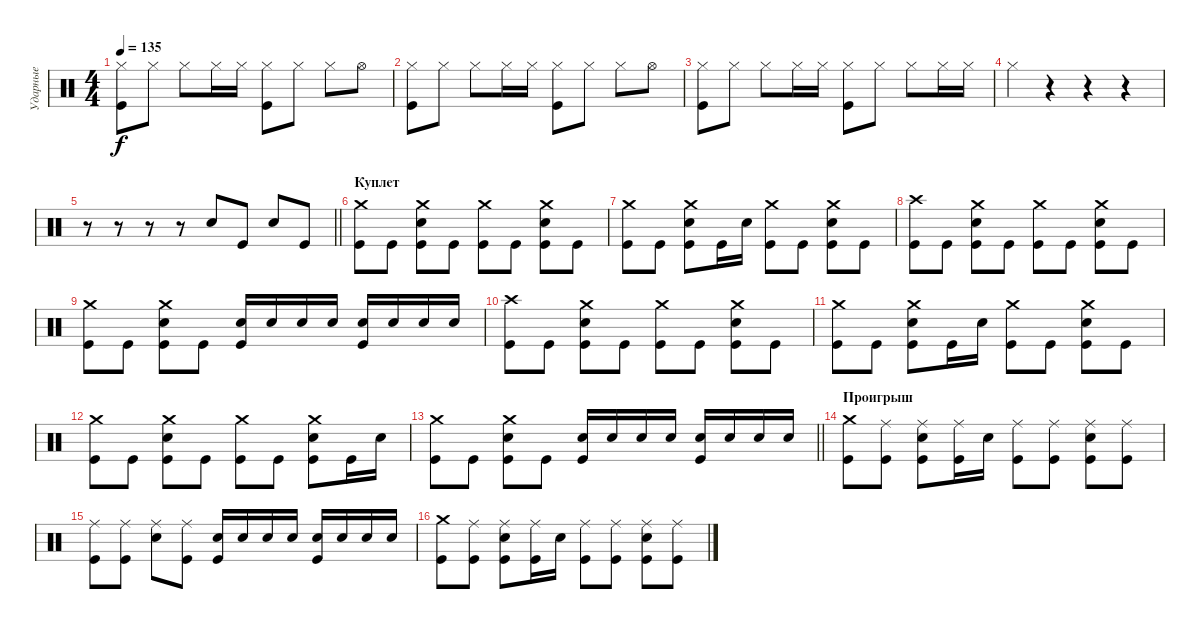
\track ("Ударные" "Ударные") {instrument percussion}
\staff {score}
\articulation defaults
\ts (4 4)
\tempo 135
\clef neutral
\ks c
("Hi-Hat (closed)" "Kick (hit)").8{dy f} "Hi-Hat (closed)".8 "Hi-Hat (closed)".8 "Hi-Hat (closed)".16 "Hi-Hat (closed)".16 ("Hi-Hat (closed)" "Kick (hit)").8 "Hi-Hat (closed)".8 "Hi-Hat (closed)".8 "Hi-Hat (open)".8 |
("Hi-Hat (closed)" "Kick (hit)").8 "Hi-Hat (closed)".8 "Hi-Hat (closed)".8 "Hi-Hat (closed)".16 "Hi-Hat (closed)".16 ("Hi-Hat (closed)" "Kick (hit)").8 "Hi-Hat (closed)".8 "Hi-Hat (closed)".8 "Hi-Hat (open)".8 |
("Hi-Hat (closed)" "Kick (hit)").8 "Hi-Hat (closed)".8 "Hi-Hat (closed)".8 "Hi-Hat (closed)".16 "Hi-Hat (closed)".16 ("Hi-Hat (closed)" "Kick (hit)").8 "Hi-Hat (closed)".8 "Hi-Hat (closed)".8 "Hi-Hat (closed)".16 "Hi-Hat (closed)".16 |
"Hi-Hat (closed)".4 r.4 r.4 r.4 |
\barLineRight lightlight
r.8 r.8 r.8 r.8 "Electric Snare (hit)".8 "Kick (hit)".8 "Electric Snare (hit)".8 "Kick (hit)".8 |
\section ("" "Куплет")
("Crash medium (hit)" "Kick (hit)").8 "Kick (hit)".8 ("Crash medium (hit)" "Electric Snare (hit)" "Kick (hit)").8 "Kick (hit)".8 ("Crash medium (hit)" "Kick (hit)").8 "Kick (hit)".8 ("Crash medium (hit)" "Electric Snare (hit)" "Kick (hit)").8 "Kick (hit)".8 |
("Crash medium (hit)" "Kick (hit)").8 "Kick (hit)".8 ("Crash medium (hit)" "Electric Snare (hit)" "Kick (hit)").8 "Kick (hit)".16 "Electric Snare (hit)".16 ("Crash medium (hit)" "Kick (hit)").8 "Kick (hit)".8 ("Crash medium (hit)" "Electric Snare (hit)" "Kick (hit)").8 "Kick (hit)".8 |
("Crash high (hit)" "Kick (hit)").8 "Kick (hit)".8 ("Crash medium (hit)" "Electric Snare (hit)" "Kick (hit)").8 "Kick (hit)".8 ("Crash medium (hit)" "Kick (hit)").8 "Kick (hit)".8 ("Crash medium (hit)" "Electric Snare (hit)" "Kick (hit)").8 "Kick (hit)".8 |
("Crash medium (hit)" "Kick (hit)").8 "Kick (hit)".8 ("Crash medium (hit)" "Electric Snare (hit)" "Kick (hit)").8 "Kick (hit)".8 ("Electric Snare (hit)" "Kick (hit)").16 "Electric Snare (hit)".16 "Electric Snare (hit)".16 "Electric Snare (hit)".16 ("Electric Snare (hit)" "Kick (hit)").16 "Electric Snare (hit)".16 "Electric Snare (hit)".16 "Electric Snare (hit)".16 |
("Crash high (hit)" "Kick (hit)").8 "Kick (hit)".8 ("Crash medium (hit)" "Electric Snare (hit)" "Kick (hit)").8 "Kick (hit)".8 ("Crash medium (hit)" "Kick (hit)").8 "Kick (hit)".8 ("Crash medium (hit)" "Electric Snare (hit)" "Kick (hit)").8 "Kick (hit)".8 |
("Crash medium (hit)" "Kick (hit)").8 "Kick (hit)".8 ("Crash medium (hit)" "Electric Snare (hit)" "Kick (hit)").8 "Kick (hit)".16 "Electric Snare (hit)".16 ("Crash medium (hit)" "Kick (hit)").8 "Kick (hit)".8 ("Crash medium (hit)" "Electric Snare (hit)" "Kick (hit)").8 "Kick (hit)".8 |
("Crash medium (hit)" "Kick (hit)").8 "Kick (hit)".8 ("Crash medium (hit)" "Electric Snare (hit)" "Kick (hit)").8 "Kick (hit)".8 ("Crash medium (hit)" "Kick (hit)").8 "Kick (hit)".8 ("Crash medium (hit)" "Electric Snare (hit)" "Kick (hit)").8 "Kick (hit)".16 "Electric Snare (hit)".16 |
\barLineRight lightlight
("Crash medium (hit)" "Kick (hit)").8 "Kick (hit)".8 ("Crash medium (hit)" "Electric Snare (hit)" "Kick (hit)").8 "Kick (hit)".8 ("Electric Snare (hit)" "Kick (hit)").16 "Electric Snare (hit)".16 "Electric Snare (hit)".16 "Electric Snare (hit)".16 ("Electric Snare (hit)" "Kick (hit)").16 "Electric Snare (hit)".16 "Electric Snare (hit)".16 "Electric Snare (hit)".16 |
\section ("" "Проигрыш")
("Crash medium (hit)" "Kick (hit)").8 ("Ride (middle)" "Kick (hit)").8 ("Ride (middle)" "Electric Snare (hit)" "Kick (hit)").8 ("Ride (middle)" "Kick (hit)").16 "Electric Snare (hit)".16 ("Ride (middle)" "Kick (hit)").8 ("Ride (middle)" "Kick (hit)").8 ("Ride (middle)" "Electric Snare (hit)" "Kick (hit)").8 ("Ride (middle)" "Kick (hit)").8 |
("Ride (middle)" "Kick (hit)").8 ("Ride (middle)" "Kick (hit)").8 ("Ride (middle)" "Electric Snare (hit)").8 ("Ride (middle)" "Kick (hit)").8 ("Electric Snare (hit)" "Kick (hit)").16 "Electric Snare (hit)".16 "Electric Snare (hit)".16 "Electric Snare (hit)".16 ("Electric Snare (hit)" "Kick (hit)").16 "Electric Snare (hit)".16 "Electric Snare (hit)".16 "Electric Snare (hit)".16 |
("Crash medium (hit)" "Kick (hit)").8 ("Ride (middle)" "Kick (hit)").8 ("Ride (middle)" "Electric Snare (hit)" "Kick (hit)").8 ("Ride (middle)" "Kick (hit)").16 "Electric Snare (hit)".16 ("Ride (middle)" "Kick (hit)").8 ("Ride (middle)" "Kick (hit)").8 ("Ride (middle)" "Electric Snare (hit)" "Kick (hit)").8 ("Ride (middle)" "Kick (hit)").8
